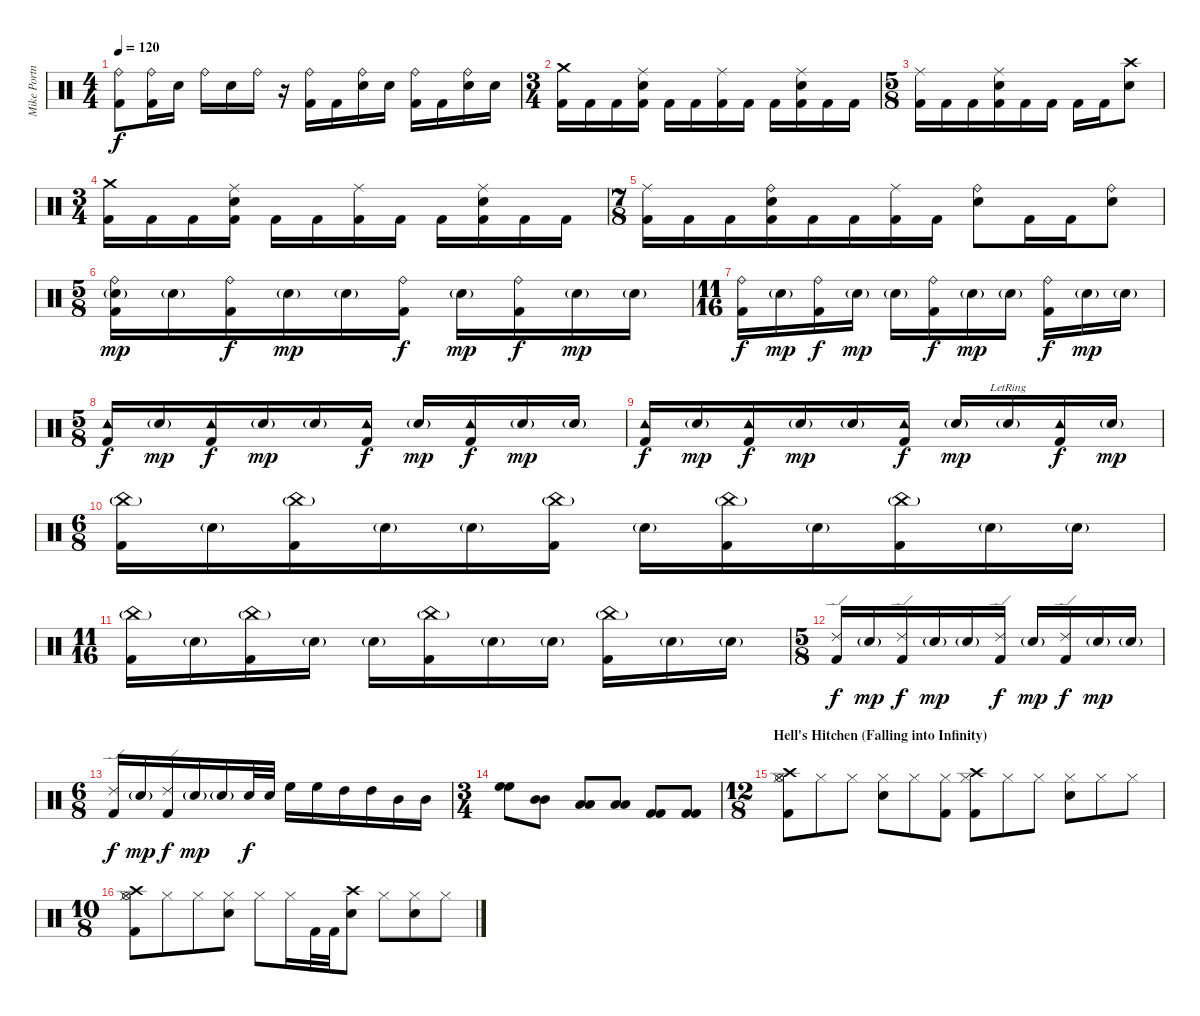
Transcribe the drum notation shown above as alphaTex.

\track ("Mike Portnoy Drums" "Mike Portn") {instrument percussion}
\staff {score}
\articulation defaults
\ts (4 4)
\tempo 120
\clef neutral
\ks c
("Ride (bell)" "Kick (hit) 2").8{dy f} ("Ride (bell)" "Kick (hit) 2").16 "Snare (hit) 2".16 "Ride (bell)".16 "Snare (hit) 2".16 "Ride (bell)".16 r.16 ("Ride (bell)" "Kick (hit) 2").16 "Kick (hit) 2".16 ("Ride (bell)" "Snare (hit) 2").16 "Snare (hit) 2".16 ("Ride (bell)" "Kick (hit) 2").16 "Kick (hit) 2".16 ("Ride (bell)" "Snare (hit) 2").16 "Snare (hit) 2".16 |
\ts (3 4)
("Crash medium (hit)" "Kick (hit) 2").16 "Kick (hit) 2".16 "Kick (hit) 2".16 ("Ride (middle)" "Snare (hit) 2" "Kick (hit) 2").16 "Kick (hit) 2".16 "Kick (hit) 2".16 ("Ride (middle)" "Kick (hit) 2").16 "Kick (hit) 2".16 "Kick (hit) 2".16 ("Ride (middle)" "Snare (hit) 2" "Kick (hit) 2").16 "Kick (hit) 2".16 "Kick (hit) 2".16 |
\ts (5 8)
("Ride (middle)" "Kick (hit) 2").16 "Kick (hit) 2".16 "Kick (hit) 2".16 ("Ride (middle)" "Snare (hit) 2" "Kick (hit) 2").16 "Kick (hit) 2".16 "Kick (hit) 2".16 "Kick (hit) 2".16 "Kick (hit) 2".16 ("Crash high (hit)" "Snare (hit) 2").8 |
\ts (3 4)
("Crash medium (hit)" "Kick (hit) 2").16 "Kick (hit) 2".16 "Kick (hit) 2".16 ("Ride (middle)" "Snare (hit) 2" "Kick (hit) 2").16 "Kick (hit) 2".16 "Kick (hit) 2".16 ("Ride (middle)" "Kick (hit) 2").16 "Kick (hit) 2".16 "Kick (hit) 2".16 ("Ride (middle)" "Snare (hit) 2" "Kick (hit) 2").16 "Kick (hit) 2".16 "Kick (hit) 2".16 |
\ts (7 8)
("Ride (middle)" "Kick (hit) 2").16 "Kick (hit) 2".16 "Kick (hit) 2".16 ("Ride (bell)" "Snare (hit) 2" "Kick (hit) 2").16 "Kick (hit) 2".16 "Kick (hit) 2".16 ("Ride (middle)" "Kick (hit) 2").16 "Kick (hit) 2".16 ("Ride (bell)" "Snare (hit) 2").8 "Kick (hit) 2".16 "Kick (hit) 2".16 ("Ride (bell)" "Snare (hit) 2").8 |
\ts (5 8)
("Ride (bell)" "Snare (hit) 2"{g} "Kick (hit) 2").16{dy mp} "Snare (hit) 2"{g}.16 ("Ride (bell)" "Kick (hit) 2").16{dy f} "Snare (hit) 2"{g}.16{dy mp} "Snare (hit) 2"{g}.16 ("Ride (bell)" "Kick (hit) 2").16{dy f} "Snare (hit) 2"{g}.16{dy mp} ("Ride (bell)" "Kick (hit) 2").16{dy f} "Snare (hit) 2"{g}.16{dy mp} "Snare (hit) 2"{g}.16 |
\ts (11 16)
("Ride (bell)" "Kick (hit) 2").16{dy f} "Snare (hit) 2"{g}.16{dy mp} ("Ride (bell)" "Kick (hit) 2").16{dy f} "Snare (hit) 2"{g}.16{dy mp} "Snare (hit) 2"{g}.16 ("Ride (bell)" "Kick (hit) 2").16{dy f} "Snare (hit) 2"{g}.16{dy mp} "Snare (hit) 2"{g}.16 ("Ride (bell)" "Kick (hit) 2").16{dy f} "Snare (hit) 2"{g}.16{dy mp} "Snare (hit) 2"{g}.16 |
\ts (5 8)
("Tambourine (hit)" "Kick (hit) 2").16{dy f} "Snare (hit) 2"{g}.16{dy mp} ("Tambourine (hit)" "Kick (hit) 2").16{dy f} "Snare (hit) 2"{g}.16{dy mp} "Snare (hit) 2"{g}.16 ("Tambourine (hit)" "Kick (hit) 2").16{dy f} "Snare (hit) 2"{g}.16{dy mp} ("Tambourine (hit)" "Kick (hit) 2").16{dy f} "Snare (hit) 2"{g}.16{dy mp} "Snare (hit) 2"{g}.16 |
("Tambourine (hit)" "Kick (hit) 2").16{dy f} "Snare (hit) 2"{g}.16{dy mp} ("Tambourine (hit)" "Kick (hit) 2").16{dy f} "Snare (hit) 2"{g}.16{dy mp} "Snare (hit) 2"{g}.16 ("Tambourine (hit)" "Kick (hit) 2").16{dy f} "Snare (hit) 2"{g}.16{dy mp} "Snare (hit) 2"{g lr}.16 ("Tambourine (hit)" "Kick (hit) 2").16{dy f} "Snare (hit) 2"{g}.16{dy mp} |
\ts (6 8)
("China (hit)"{g} "Kick (hit) 2").16 "Snare (hit) 2"{g}.16 ("China (hit)"{g} "Kick (hit) 2").16 "Snare (hit) 2"{g}.16 "Snare (hit) 2"{g}.16 ("China (hit)"{g} "Kick (hit) 2").16 "Snare (hit) 2"{g}.16 ("China (hit)"{g} "Kick (hit) 2").16 "Snare (hit) 2"{g}.16 ("China (hit)"{g} "Kick (hit) 2").16 "Snare (hit) 2"{g}.16 "Snare (hit) 2"{g}.16 |
\ts (11 16)
("China (hit)"{g} "Kick (hit) 2").16 "Snare (hit) 2"{g}.16 ("China (hit)"{g} "Kick (hit) 2").16 "Snare (hit) 2"{g}.16 "Snare (hit) 2"{g}.16 ("China (hit)"{g} "Kick (hit) 2").16 "Snare (hit) 2"{g}.16 "Snare (hit) 2"{g}.16 ("China (hit)"{g} "Kick (hit) 2").16 "Snare (hit) 2"{g}.16 "Snare (hit) 2"{g}.16 |
\ts (5 8)
("Ride (edge) 2" "Kick (hit) 2").16{dy f} "Snare (hit) 2"{g}.16{dy mp} ("Ride (edge) 2" "Kick (hit) 2").16{dy f} "Snare (hit) 2"{g}.16{dy mp} "Snare (hit) 2"{g}.16 ("Ride (edge) 2" "Kick (hit) 2").16{dy f} "Snare (hit) 2"{g}.16{dy mp} ("Ride (edge) 2" "Kick (hit) 2").16{dy f} "Snare (hit) 2"{g}.16{dy mp} "Snare (hit) 2"{g}.16 |
\ts (6 8)
("Ride (edge) 2" "Kick (hit) 2").16{dy f} "Snare (hit) 2"{g}.16{dy mp} ("Ride (edge) 2" "Kick (hit) 2").16{dy f} "Snare (hit) 2"{g}.16{dy mp} "Snare (hit) 2"{g}.16 "Snare (hit) 2".32{dy f} "Snare (hit) 2".32 "High Floor Tom (hit)".16 "High Floor Tom (hit)".16 "High Tom (hit)".16 "High Tom (hit)".16 "Mid Tom (hit)".16 "Mid Tom (hit)".16 |
\ts (3 4)
("High Floor Tom (hit)" "High Floor Tom (hit)").8 ("Mid Tom (hit)" "Mid Tom (hit)").8 ("Low Tom (hit)" "Low Tom (hit)").8 ("Low Floor Tom (hit)" "Low Floor Tom (hit)").8 ("Kick (hit) 2" "Kick (hit) 2").8 ("Kick (hit) 2" "Kick (hit) 2").8 |
\ts (12 8)
\section ("" "Hell's Hitchen (Falling into Infinity)")
("Hi-Hat (open)" "Kick (hit) 2" "Crash high (hit)" "Hi-Hat (closed)").8 "Hi-Hat (closed)".8 "Hi-Hat (closed)".8 ("Snare (hit) 2" "Hi-Hat (closed)").8 "Hi-Hat (closed)".8 ("Kick (hit) 2" "Hi-Hat (closed)").8 ("Crash high (hit)" "Kick (hit) 2" "Hi-Hat (closed)").8 "Hi-Hat (closed)".8 "Hi-Hat (closed)".8 ("Snare (hit) 2" "Hi-Hat (closed)").8 "Hi-Hat (closed)".8 "Hi-Hat (closed)".8 |
\ts (10 8)
("Crash high (hit)" "Hi-Hat (open)" "Kick (hit) 2" "Hi-Hat (closed)").8 "Hi-Hat (closed)".8 "Hi-Hat (closed)".8 ("Snare (hit) 2" "Hi-Hat (closed)").8 "Hi-Hat (closed)".8 "Hi-Hat (closed)".16 "Kick (hit) 2".32 "Kick (hit) 2".32 ("Crash high (hit)" "Snare (hit) 2").8 "Hi-Hat (closed)".8 ("Snare (hit) 2" "Hi-Hat (closed)").8 "Hi-Hat (closed)".8
